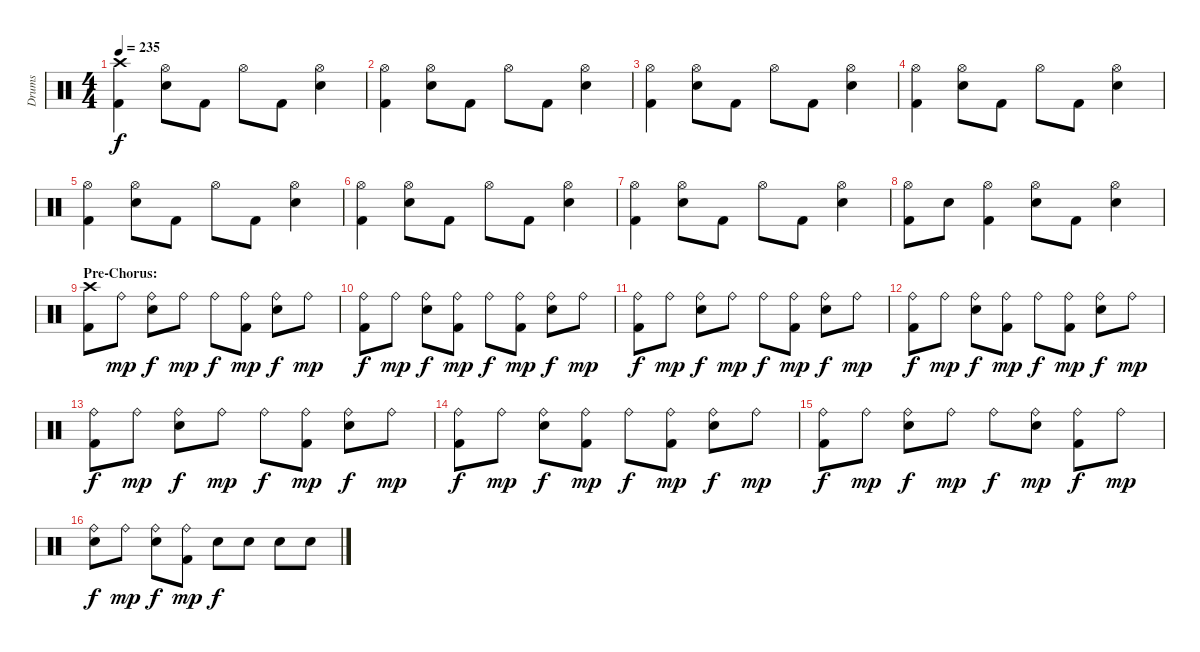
\track ("Drums" "Drums") {instrument percussion}
\staff {score}
\articulation defaults
\ts (4 4)
\tempo 235
\clef neutral
\ks c
("Crash high (hit)" "Kick (hit) 2").4{dy f} ("Hi-Hat (open)" "Snare (hit) 2").8 "Kick (hit) 2".8 "Hi-Hat (open)".8 "Kick (hit) 2".8 ("Hi-Hat (open)" "Snare (hit) 2").4 |
("Hi-Hat (open)" "Kick (hit) 2").4 ("Hi-Hat (open)" "Snare (hit) 2").8 "Kick (hit) 2".8 "Hi-Hat (open)".8 "Kick (hit) 2".8 ("Hi-Hat (open)" "Snare (hit) 2").4 |
("Hi-Hat (open)" "Kick (hit) 2").4 ("Hi-Hat (open)" "Snare (hit) 2").8 "Kick (hit) 2".8 "Hi-Hat (open)".8 "Kick (hit) 2".8 ("Hi-Hat (open)" "Snare (hit) 2").4 |
("Hi-Hat (open)" "Kick (hit) 2").4 ("Hi-Hat (open)" "Snare (hit) 2").8 "Kick (hit) 2".8 "Hi-Hat (open)".8 "Kick (hit) 2".8 ("Hi-Hat (open)" "Snare (hit) 2").4 |
("Hi-Hat (open)" "Kick (hit) 2").4 ("Hi-Hat (open)" "Snare (hit) 2").8 "Kick (hit) 2".8 "Hi-Hat (open)".8 "Kick (hit) 2".8 ("Hi-Hat (open)" "Snare (hit) 2").4 |
("Hi-Hat (open)" "Kick (hit) 2").4 ("Hi-Hat (open)" "Snare (hit) 2").8 "Kick (hit) 2".8 "Hi-Hat (open)".8 "Kick (hit) 2".8 ("Hi-Hat (open)" "Snare (hit) 2").4 |
("Hi-Hat (open)" "Kick (hit) 2").4 ("Hi-Hat (open)" "Snare (hit) 2").8 "Kick (hit) 2".8 "Hi-Hat (open)".8 "Kick (hit) 2".8 ("Hi-Hat (open)" "Snare (hit) 2").4 |
("Hi-Hat (open)" "Kick (hit) 2").8 "Snare (hit) 2".8 ("Hi-Hat (open)" "Kick (hit) 2").4 ("Hi-Hat (open)" "Snare (hit) 2").8 "Kick (hit) 2".8 ("Hi-Hat (open)" "Snare (hit) 2").4 |
\section ("" "Pre-Chorus:")
("Crash high (hit)" "Kick (hit) 2").8 "Ride (bell)".8{dy mp} ("Ride (bell)" "Snare (hit) 2").8{dy f} "Ride (bell)".8{dy mp} "Ride (bell)".8{dy f} ("Ride (bell)" "Kick (hit) 2").8{dy mp} ("Ride (bell)" "Snare (hit) 2").8{dy f} "Ride (bell)".8{dy mp} |
("Ride (bell)" "Kick (hit) 2").8{dy f} "Ride (bell)".8{dy mp} ("Ride (bell)" "Snare (hit) 2").8{dy f} ("Ride (bell)" "Kick (hit) 2").8{dy mp} "Ride (bell)".8{dy f} ("Ride (bell)" "Kick (hit) 2").8{dy mp} ("Ride (bell)" "Snare (hit) 2").8{dy f} "Ride (bell)".8{dy mp} |
("Ride (bell)" "Kick (hit) 2").8{dy f} "Ride (bell)".8{dy mp} ("Ride (bell)" "Snare (hit) 2").8{dy f} "Ride (bell)".8{dy mp} "Ride (bell)".8{dy f} ("Ride (bell)" "Kick (hit) 2").8{dy mp} ("Ride (bell)" "Snare (hit) 2").8{dy f} "Ride (bell)".8{dy mp} |
("Ride (bell)" "Kick (hit) 2").8{dy f} "Ride (bell)".8{dy mp} ("Ride (bell)" "Snare (hit) 2").8{dy f} ("Ride (bell)" "Kick (hit) 2").8{dy mp} "Ride (bell)".8{dy f} ("Ride (bell)" "Kick (hit) 2").8{dy mp} ("Ride (bell)" "Snare (hit) 2").8{dy f} "Ride (bell)".8{dy mp} |
("Ride (bell)" "Kick (hit) 2").8{dy f} "Ride (bell)".8{dy mp} ("Ride (bell)" "Snare (hit) 2").8{dy f} "Ride (bell)".8{dy mp} "Ride (bell)".8{dy f} ("Ride (bell)" "Kick (hit) 2").8{dy mp} ("Ride (bell)" "Snare (hit) 2").8{dy f} "Ride (bell)".8{dy mp} |
("Ride (bell)" "Kick (hit) 2").8{dy f} "Ride (bell)".8{dy mp} ("Ride (bell)" "Snare (hit) 2").8{dy f} ("Ride (bell)" "Kick (hit) 2").8{dy mp} "Ride (bell)".8{dy f} ("Ride (bell)" "Kick (hit) 2").8{dy mp} ("Ride (bell)" "Snare (hit) 2").8{dy f} "Ride (bell)".8{dy mp} |
("Ride (bell)" "Kick (hit) 2").8{dy f} "Ride (bell)".8{dy mp} ("Ride (bell)" "Snare (hit) 2").8{dy f} "Ride (bell)".8{dy mp} "Ride (bell)".8{dy f} ("Ride (bell)" "Snare (hit) 2").8{dy mp} ("Ride (bell)" "Kick (hit) 2").8{dy f} "Ride (bell)".8{dy mp} |
("Ride (bell)" "Snare (hit) 2").8{dy f} "Ride (bell)".8{dy mp} ("Ride (bell)" "Snare (hit) 2").8{dy f} ("Ride (bell)" "Kick (hit) 2").8{dy mp} "Snare (hit) 2".8{dy f} "Snare (hit) 2".8 "Snare (hit) 2".8 "Snare (hit) 2".8
